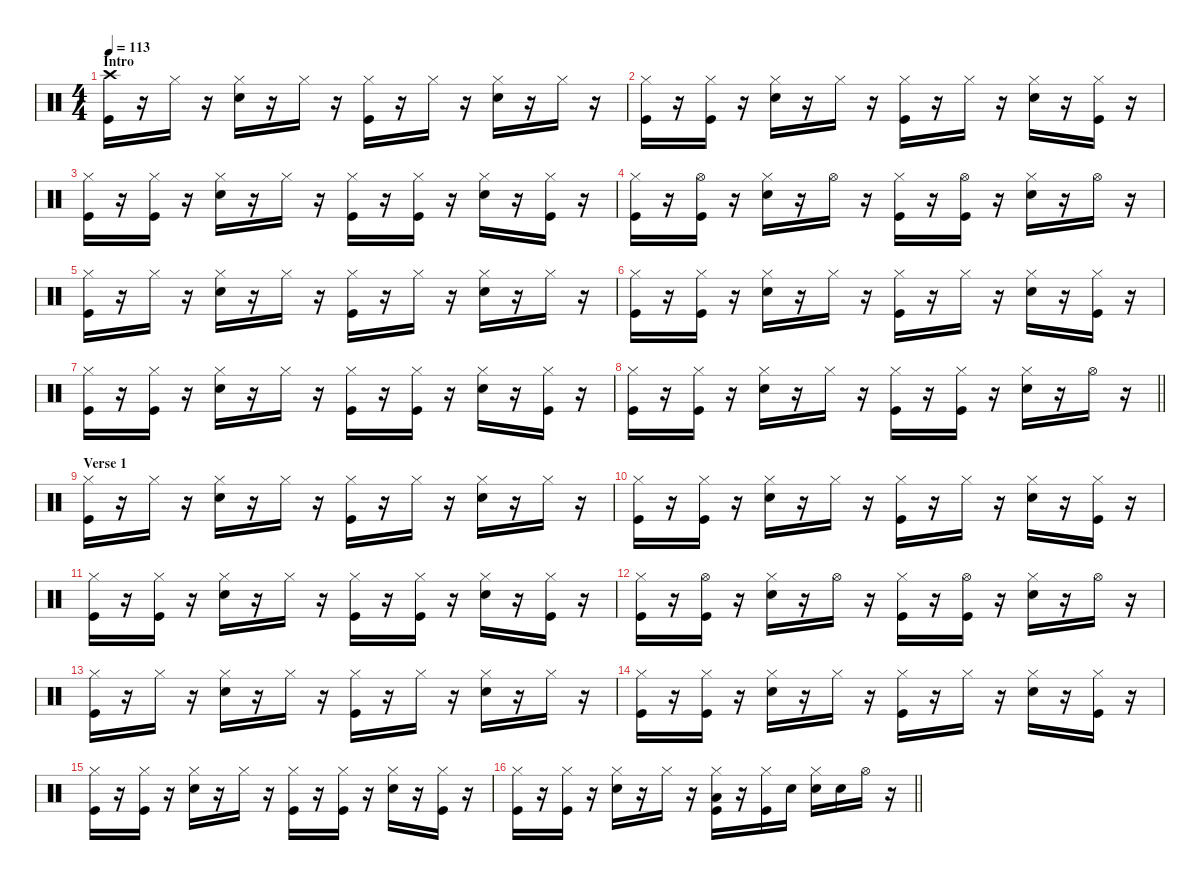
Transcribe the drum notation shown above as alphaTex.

\defaultSystemsLayout 4
\hideDynamics
\bracketExtendMode nobrackets
\singleTrackTrackNamePolicy hidden
\multiTrackTrackNamePolicy hidden
\firstSystemTrackNameMode fullname
\firstSystemTrackNameOrientation horizontal
\otherSystemsTrackNameOrientation horizontal
\track ("Drums" "drm.") {instrument percussion}
\staff {score}
\articulation defaults
\ts (4 4)
\section ("" "Intro")
\tempo 113
\clef neutral
\ks c
("Kick (hit)" "Crash high (hit)").16{dy fff beam Down} r.16{beam Down} "Hi-Hat (closed)".16{dy mf beam Down} r.16{beam Down} ("Snare (hit) 2" "Hi-Hat (closed)").16{dy fff beam Down} r.16{beam Down} "Hi-Hat (closed)".16{dy mf beam Down} r.16{beam Down} ("Kick (hit)" "Hi-Hat (closed)").16{dy fff beam Down} r.16{beam Down} "Hi-Hat (closed)".16{dy mf beam Down} r.16{beam Down} ("Snare (hit) 2" "Hi-Hat (closed)").16{dy fff beam Down} r.16{beam Down} "Hi-Hat (closed)".16{dy mf beam Down} r.16{beam Down} |
("Kick (hit)" "Hi-Hat (closed)").16{dy fff beam Down} r.16{beam Down} ("Kick (hit)" "Hi-Hat (closed)").16{dy ff beam Down} r.16{beam Down} ("Snare (hit) 2" "Hi-Hat (closed)").16{dy fff beam Down} r.16{beam Down} "Hi-Hat (closed)".16{dy mf beam Down} r.16{beam Down} ("Kick (hit)" "Hi-Hat (closed)").16{dy fff beam Down} r.16{beam Down} "Hi-Hat (closed)".16{dy mf beam Down} r.16{beam Down} ("Snare (hit) 2" "Hi-Hat (closed)").16{dy fff beam Down} r.16{beam Down} ("Kick (hit)" "Hi-Hat (closed)").16{dy ff beam Down} r.16{beam Down} |
("Kick (hit)" "Hi-Hat (closed)").16{dy fff beam Down} r.16{beam Down} ("Kick (hit)" "Hi-Hat (closed)").16{dy f beam Down} r.16{beam Down} ("Snare (hit) 2" "Hi-Hat (closed)").16{dy fff beam Down} r.16{beam Down} "Hi-Hat (closed)".16{dy mf beam Down} r.16{beam Down} ("Kick (hit)" "Hi-Hat (closed)").16{dy fff beam Down} r.16{beam Down} ("Kick (hit)" "Hi-Hat (closed)").16{dy ff beam Down} r.16{beam Down} ("Snare (hit) 2" "Hi-Hat (closed)").16{dy fff beam Down} r.16{beam Down} ("Kick (hit)" "Hi-Hat (closed)").16{dy f beam Down} r.16{beam Down} |
("Kick (hit)" "Hi-Hat (closed)").16{dy fff beam Down} r.16{beam Down} ("Kick (hit)" "Hi-Hat (open)").16{dy ff beam Down} r.16{beam Down} ("Snare (hit) 2" "Hi-Hat (closed)").16{dy fff beam Down} r.16{beam Down} "Hi-Hat (open)".16{dy mp beam Down} r.16{beam Down} ("Kick (hit)" "Hi-Hat (closed)").16{dy fff beam Down} r.16{beam Down} ("Kick (hit)" "Hi-Hat (open)").16{dy ff beam Down} r.16{beam Down} ("Snare (hit) 2" "Hi-Hat (closed)").16{dy fff beam Down} r.16{beam Down} "Hi-Hat (open)".16{dy mp beam Down} r.16{beam Down} |
("Kick (hit)" "Hi-Hat (closed)").16{dy fff beam Down} r.16{beam Down} "Hi-Hat (closed)".16{dy mf beam Down} r.16{beam Down} ("Snare (hit) 2" "Hi-Hat (closed)").16{dy fff beam Down} r.16{beam Down} "Hi-Hat (closed)".16{dy mf beam Down} r.16{beam Down} ("Kick (hit)" "Hi-Hat (closed)").16{dy fff beam Down} r.16{beam Down} "Hi-Hat (closed)".16{dy mf beam Down} r.16{beam Down} ("Snare (hit) 2" "Hi-Hat (closed)").16{dy fff beam Down} r.16{beam Down} "Hi-Hat (closed)".16{dy mf beam Down} r.16{beam Down} |
("Kick (hit)" "Hi-Hat (closed)").16{dy fff beam Down} r.16{beam Down} ("Kick (hit)" "Hi-Hat (closed)").16{dy ff beam Down} r.16{beam Down} ("Snare (hit) 2" "Hi-Hat (closed)").16{dy fff beam Down} r.16{beam Down} "Hi-Hat (closed)".16{dy mf beam Down} r.16{beam Down} ("Kick (hit)" "Hi-Hat (closed)").16{dy fff beam Down} r.16{beam Down} "Hi-Hat (closed)".16{dy mf beam Down} r.16{beam Down} ("Snare (hit) 2" "Hi-Hat (closed)").16{dy fff beam Down} r.16{beam Down} ("Kick (hit)" "Hi-Hat (closed)").16{dy ff beam Down} r.16{beam Down} |
("Kick (hit)" "Hi-Hat (closed)").16{dy fff beam Down} r.16{beam Down} ("Kick (hit)" "Hi-Hat (closed)").16{dy f beam Down} r.16{beam Down} ("Snare (hit) 2" "Hi-Hat (closed)").16{dy fff beam Down} r.16{beam Down} "Hi-Hat (closed)".16{dy mf beam Down} r.16{beam Down} ("Kick (hit)" "Hi-Hat (closed)").16{dy fff beam Down} r.16{beam Down} ("Kick (hit)" "Hi-Hat (closed)").16{dy ff beam Down} r.16{beam Down} ("Snare (hit) 2" "Hi-Hat (closed)").16{dy fff beam Down} r.16{beam Down} ("Kick (hit)" "Hi-Hat (closed)").16{dy f beam Down} r.16{beam Down} |
\barLineRight lightlight
("Kick (hit)" "Hi-Hat (closed)").16{dy fff beam Down} r.16{beam Down} ("Kick (hit)" "Hi-Hat (closed)").16{dy ff beam Down} r.16{beam Down} ("Snare (hit) 2" "Hi-Hat (closed)").16{dy fff beam Down} r.16{beam Down} "Hi-Hat (closed)".16{dy mp beam Down} r.16{beam Down} ("Kick (hit)" "Hi-Hat (closed)").16{dy fff beam Down} r.16{beam Down} ("Kick (hit)" "Hi-Hat (closed)").16{dy ff beam Down} r.16{beam Down} ("Snare (hit) 2" "Hi-Hat (closed)").16{dy fff beam Down} r.16{beam Down} "Hi-Hat (open)".16{dy mp beam Down} r.16{beam Down} |
\section ("" "Verse 1")
("Kick (hit)" "Hi-Hat (closed)").16{dy fff beam Down} r.16{beam Down} "Hi-Hat (closed)".16{dy mf beam Down} r.16{beam Down} ("Snare (hit) 2" "Hi-Hat (closed)").16{dy fff beam Down} r.16{beam Down} "Hi-Hat (closed)".16{dy mf beam Down} r.16{beam Down} ("Kick (hit)" "Hi-Hat (closed)").16{dy fff beam Down} r.16{beam Down} "Hi-Hat (closed)".16{dy mf beam Down} r.16{beam Down} ("Snare (hit) 2" "Hi-Hat (closed)").16{dy fff beam Down} r.16{beam Down} "Hi-Hat (closed)".16{dy mf beam Down} r.16{beam Down} |
("Kick (hit)" "Hi-Hat (closed)").16{dy fff beam Down} r.16{beam Down} ("Kick (hit)" "Hi-Hat (closed)").16{dy ff beam Down} r.16{beam Down} ("Snare (hit) 2" "Hi-Hat (closed)").16{dy fff beam Down} r.16{beam Down} "Hi-Hat (closed)".16{dy mf beam Down} r.16{beam Down} ("Kick (hit)" "Hi-Hat (closed)").16{dy fff beam Down} r.16{beam Down} "Hi-Hat (closed)".16{dy mf beam Down} r.16{beam Down} ("Snare (hit) 2" "Hi-Hat (closed)").16{dy fff beam Down} r.16{beam Down} ("Kick (hit)" "Hi-Hat (closed)").16{dy ff beam Down} r.16{beam Down} |
("Kick (hit)" "Hi-Hat (closed)").16{dy fff beam Down} r.16{beam Down} ("Kick (hit)" "Hi-Hat (closed)").16{dy f beam Down} r.16{beam Down} ("Snare (hit) 2" "Hi-Hat (closed)").16{dy fff beam Down} r.16{beam Down} "Hi-Hat (closed)".16{dy mf beam Down} r.16{beam Down} ("Kick (hit)" "Hi-Hat (closed)").16{dy fff beam Down} r.16{beam Down} ("Kick (hit)" "Hi-Hat (closed)").16{dy ff beam Down} r.16{beam Down} ("Snare (hit) 2" "Hi-Hat (closed)").16{dy fff beam Down} r.16{beam Down} ("Kick (hit)" "Hi-Hat (closed)").16{dy f beam Down} r.16{beam Down} |
("Kick (hit)" "Hi-Hat (closed)").16{dy fff beam Down} r.16{beam Down} ("Kick (hit)" "Hi-Hat (open)").16{dy ff beam Down} r.16{beam Down} ("Snare (hit) 2" "Hi-Hat (closed)").16{dy fff beam Down} r.16{beam Down} "Hi-Hat (open)".16{dy mp beam Down} r.16{beam Down} ("Kick (hit)" "Hi-Hat (closed)").16{dy fff beam Down} r.16{beam Down} ("Kick (hit)" "Hi-Hat (open)").16{dy ff beam Down} r.16{beam Down} ("Snare (hit) 2" "Hi-Hat (closed)").16{dy fff beam Down} r.16{beam Down} "Hi-Hat (open)".16{dy mp beam Down} r.16{beam Down} |
("Kick (hit)" "Hi-Hat (closed)").16{dy fff beam Down} r.16{beam Down} "Hi-Hat (closed)".16{dy mf beam Down} r.16{beam Down} ("Snare (hit) 2" "Hi-Hat (closed)").16{dy fff beam Down} r.16{beam Down} "Hi-Hat (closed)".16{dy mf beam Down} r.16{beam Down} ("Kick (hit)" "Hi-Hat (closed)").16{dy fff beam Down} r.16{beam Down} "Hi-Hat (closed)".16{dy mf beam Down} r.16{beam Down} ("Snare (hit) 2" "Hi-Hat (closed)").16{dy fff beam Down} r.16{beam Down} "Hi-Hat (closed)".16{dy mf beam Down} r.16{beam Down} |
("Kick (hit)" "Hi-Hat (closed)").16{dy fff beam Down} r.16{beam Down} ("Kick (hit)" "Hi-Hat (closed)").16{dy ff beam Down} r.16{beam Down} ("Snare (hit) 2" "Hi-Hat (closed)").16{dy fff beam Down} r.16{beam Down} "Hi-Hat (closed)".16{dy mf beam Down} r.16{beam Down} ("Kick (hit)" "Hi-Hat (closed)").16{dy fff beam Down} r.16{beam Down} "Hi-Hat (closed)".16{dy mf beam Down} r.16{beam Down} ("Snare (hit) 2" "Hi-Hat (closed)").16{dy fff beam Down} r.16{beam Down} ("Kick (hit)" "Hi-Hat (closed)").16{dy ff beam Down} r.16{beam Down} |
("Kick (hit)" "Hi-Hat (closed)").16{dy fff beam Down} r.16{beam Down} ("Kick (hit)" "Hi-Hat (closed)").16{dy f beam Down} r.16{beam Down} ("Snare (hit) 2" "Hi-Hat (closed)").16{dy fff beam Down} r.16{beam Down} "Hi-Hat (closed)".16{dy mf beam Down} r.16{beam Down} ("Kick (hit)" "Hi-Hat (closed)").16{dy fff beam Down} r.16{beam Down} ("Kick (hit)" "Hi-Hat (closed)").16{dy ff beam Down} r.16{beam Down} ("Snare (hit) 2" "Hi-Hat (closed)").16{dy fff beam Down} r.16{beam Down} ("Kick (hit)" "Hi-Hat (closed)").16{dy f beam Down} r.16{beam Down} |
\barLineRight lightlight
("Kick (hit)" "Hi-Hat (closed)").16{dy fff beam Down} r.16{beam Down} ("Kick (hit)" "Hi-Hat (closed)").16{dy ff beam Down} r.16{beam Down} ("Snare (hit) 2" "Hi-Hat (closed)").16{dy fff beam Down} r.16{beam Down} "Hi-Hat (closed)".16{dy mp beam Down} r.16{beam Down} ("Kick (hit)" "Hi-Hat (closed)" "Low Tom (hit)").16{dy fff beam Down} r.16{beam Down} ("Kick (hit)" "Hi-Hat (closed)").16{dy ff beam Down} "Snare (hit) 2".16{dy f beam Down} ("Snare (hit) 2" "Hi-Hat (closed)").16{dy ff beam Down} "Snare (hit) 2".16{beam Down} "Hi-Hat (open)".16{dy mp beam Down} r.16{beam Down}
